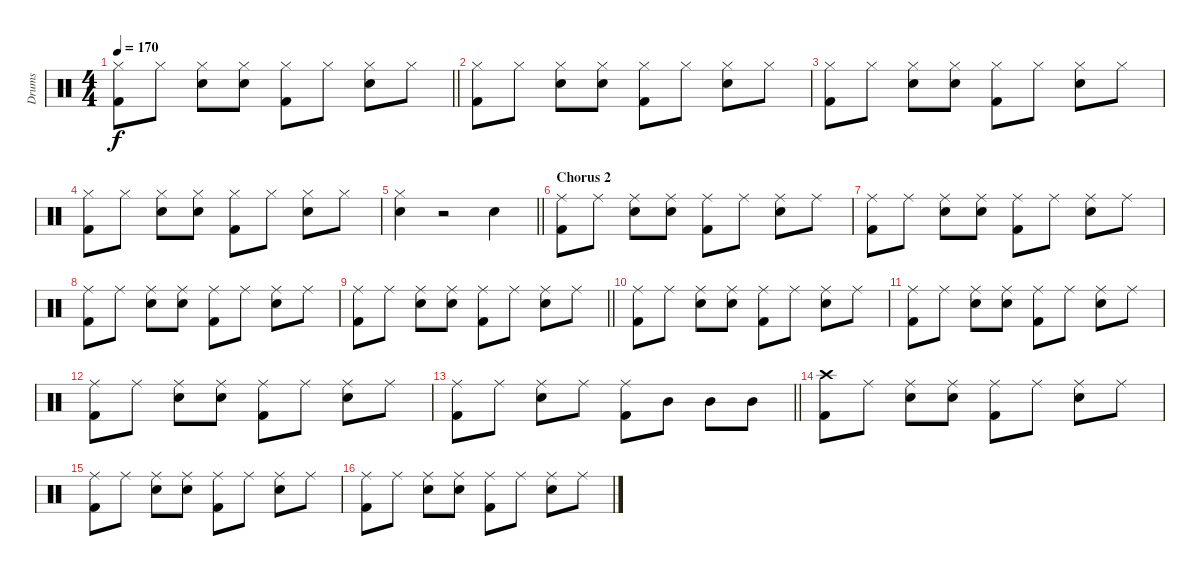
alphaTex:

\track ("Drums" "Drums") {instrument percussion}
\staff {score}
\articulation defaults
\ts (4 4)
\tempo 170
\clef neutral
\barLineRight lightlight
\ks c
("Hi-Hat (closed)" "Kick (hit) 2").8{dy f} "Hi-Hat (closed)".8 ("Hi-Hat (closed)" "Snare (hit) 2").8 ("Hi-Hat (closed)" "Snare (hit) 2").8 ("Hi-Hat (closed)" "Kick (hit) 2").8 "Hi-Hat (closed)".8 ("Hi-Hat (closed)" "Snare (hit) 2").8 "Hi-Hat (closed)".8 |
("Hi-Hat (closed)" "Kick (hit) 2").8 "Hi-Hat (closed)".8 ("Hi-Hat (closed)" "Snare (hit) 2").8 ("Hi-Hat (closed)" "Snare (hit) 2").8 ("Hi-Hat (closed)" "Kick (hit) 2").8 "Hi-Hat (closed)".8 ("Hi-Hat (closed)" "Snare (hit) 2").8 "Hi-Hat (closed)".8 |
("Hi-Hat (closed)" "Kick (hit) 2").8 "Hi-Hat (closed)".8 ("Hi-Hat (closed)" "Snare (hit) 2").8 ("Hi-Hat (closed)" "Snare (hit) 2").8 ("Hi-Hat (closed)" "Kick (hit) 2").8 "Hi-Hat (closed)".8 ("Hi-Hat (closed)" "Snare (hit) 2").8 "Hi-Hat (closed)".8 |
("Hi-Hat (closed)" "Kick (hit) 2").8 "Hi-Hat (closed)".8 ("Hi-Hat (closed)" "Snare (hit) 2").8 ("Hi-Hat (closed)" "Snare (hit) 2").8 ("Hi-Hat (closed)" "Kick (hit) 2").8 "Hi-Hat (closed)".8 ("Hi-Hat (closed)" "Snare (hit) 2").8 "Hi-Hat (closed)".8 |
\barLineRight lightlight
("Hi-Hat (closed)" "Snare (hit) 2").4 r.2 "Snare (hit) 2".4 |
\section ("" "Chorus 2")
("Ride (middle)" "Kick (hit) 2").8 "Ride (middle)".8 ("Ride (middle)" "Snare (hit) 2").8 ("Ride (middle)" "Snare (hit) 2").8 ("Ride (middle)" "Kick (hit) 2").8 "Ride (middle)".8 ("Ride (middle)" "Snare (hit) 2").8 "Ride (middle)".8 |
("Ride (middle)" "Kick (hit) 2").8 "Ride (middle)".8 ("Ride (middle)" "Snare (hit) 2").8 ("Ride (middle)" "Snare (hit) 2").8 ("Ride (middle)" "Kick (hit) 2").8 "Ride (middle)".8 ("Ride (middle)" "Snare (hit) 2").8 "Ride (middle)".8 |
("Ride (middle)" "Kick (hit) 2").8 "Ride (middle)".8 ("Ride (middle)" "Snare (hit) 2").8 ("Ride (middle)" "Snare (hit) 2").8 ("Ride (middle)" "Kick (hit) 2").8 "Ride (middle)".8 ("Ride (middle)" "Snare (hit) 2").8 "Ride (middle)".8 |
\barLineRight lightlight
("Ride (middle)" "Kick (hit) 2").8 "Ride (middle)".8 ("Ride (middle)" "Snare (hit) 2").8 ("Ride (middle)" "Snare (hit) 2").8 ("Ride (middle)" "Kick (hit) 2").8 "Ride (middle)".8 ("Ride (middle)" "Snare (hit) 2").8 "Ride (middle)".8 |
("Ride (middle)" "Kick (hit) 2").8 "Ride (middle)".8 ("Ride (middle)" "Snare (hit) 2").8 ("Ride (middle)" "Snare (hit) 2").8 ("Ride (middle)" "Kick (hit) 2").8 "Ride (middle)".8 ("Ride (middle)" "Snare (hit) 2").8 "Ride (middle)".8 |
("Ride (middle)" "Kick (hit) 2").8 "Ride (middle)".8 ("Ride (middle)" "Snare (hit) 2").8 ("Ride (middle)" "Snare (hit) 2").8 ("Ride (middle)" "Kick (hit) 2").8 "Ride (middle)".8 ("Ride (middle)" "Snare (hit) 2").8 "Ride (middle)".8 |
("Ride (middle)" "Kick (hit) 2").8 "Ride (middle)".8 ("Ride (middle)" "Snare (hit) 2").8 ("Ride (middle)" "Snare (hit) 2").8 ("Ride (middle)" "Kick (hit) 2").8 "Ride (middle)".8 ("Ride (middle)" "Snare (hit) 2").8 "Ride (middle)".8 |
\barLineRight lightlight
("Ride (middle)" "Kick (hit) 2").8 "Ride (middle)".8 ("Ride (middle)" "Snare (hit) 2").8 "Ride (middle)".8 ("Ride (middle)" "Kick (hit) 2").8 "Mid Tom (hit)".8 "Mid Tom (hit)".8 "Mid Tom (hit)".8 |
("Crash high (hit)" "Kick (hit) 2").8 "Ride (middle)".8 ("Ride (middle)" "Snare (hit) 2").8 ("Ride (middle)" "Snare (hit) 2").8 ("Ride (middle)" "Kick (hit) 2").8 "Ride (middle)".8 ("Ride (middle)" "Snare (hit) 2").8 "Ride (middle)".8 |
("Ride (middle)" "Kick (hit) 2").8 "Ride (middle)".8 ("Ride (middle)" "Snare (hit) 2").8 ("Ride (middle)" "Snare (hit) 2").8 ("Ride (middle)" "Kick (hit) 2").8 "Ride (middle)".8 ("Ride (middle)" "Snare (hit) 2").8 "Ride (middle)".8 |
("Ride (middle)" "Kick (hit) 2").8 "Ride (middle)".8 ("Ride (middle)" "Snare (hit) 2").8 ("Ride (middle)" "Snare (hit) 2").8 ("Ride (middle)" "Kick (hit) 2").8 "Ride (middle)".8 ("Ride (middle)" "Snare (hit) 2").8 "Ride (middle)".8
